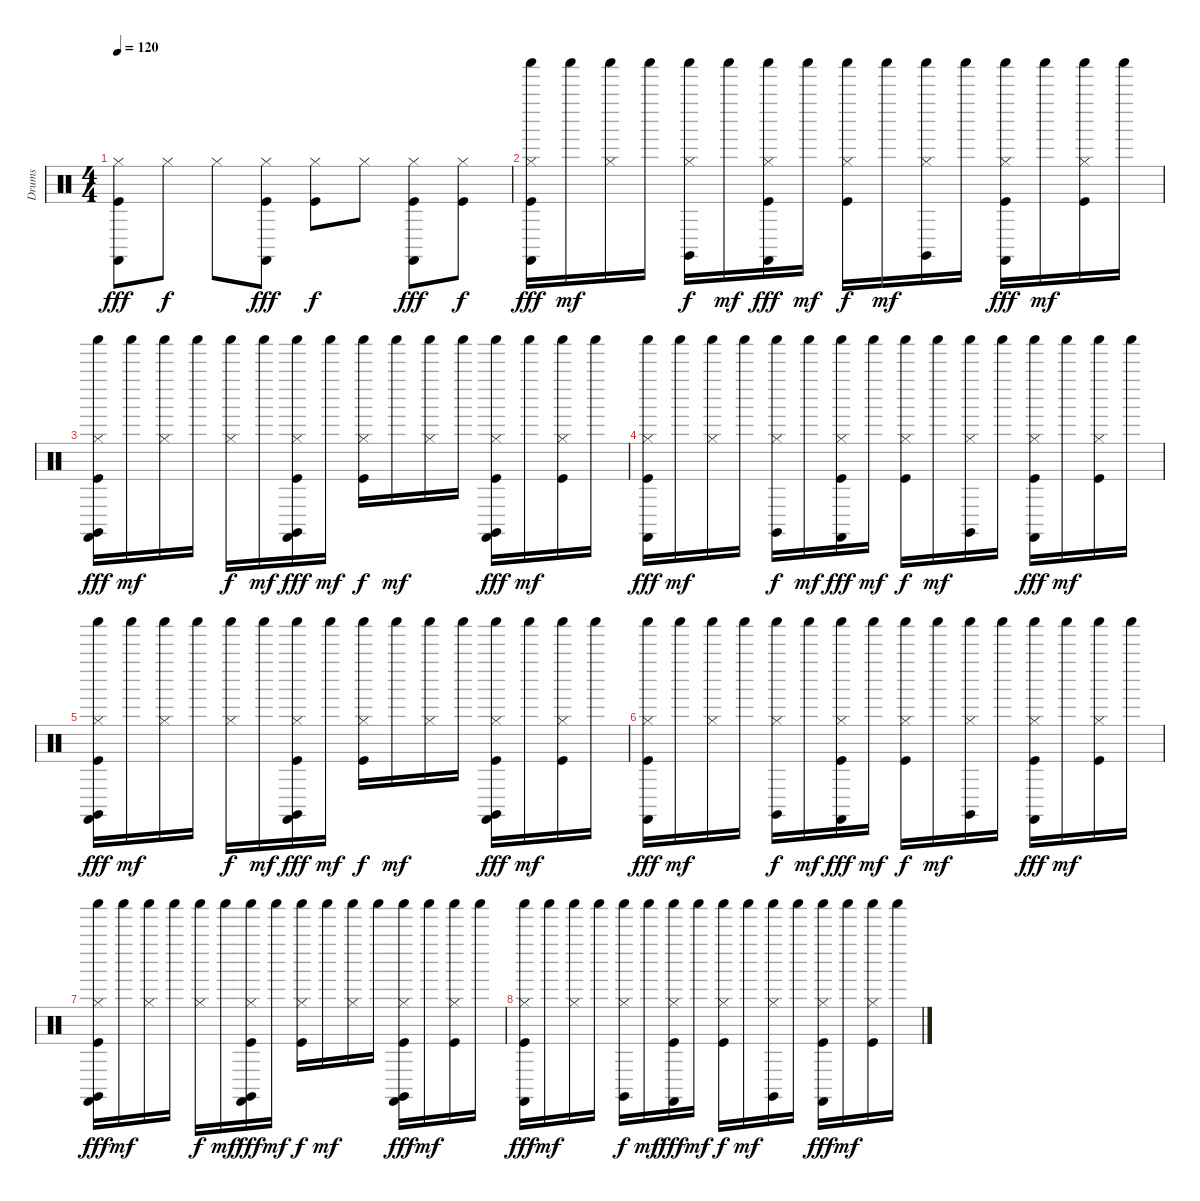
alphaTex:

\track ("Drums" "Drums") {instrument percussion}
\staff {score}
\articulation defaults
\ts (4 4)
\tempo 120
\clef neutral
\ks c
("Hi-Hat (closed)" "Castanets (hit)" "Kick (hit)").8{dy fff} "Hi-Hat (closed)".8{dy f} "Hi-Hat (closed)".8 ("Hi-Hat (closed)" "Castanets (hit)" "Kick (hit)").8{dy fff} ("Hi-Hat (closed)" "Kick (hit)").8{dy f} "Hi-Hat (closed)".8 ("Hi-Hat (closed)" "Castanets (hit)" "Kick (hit)").8{dy fff} ("Hi-Hat (closed)" "Kick (hit)").8{dy f} |
("Shaker (hit)" "Hi-Hat (closed)" "Castanets (hit)" "Kick (hit)").16{dy fff} "Shaker (hit)".16{dy mf} ("Shaker (hit)" "Hi-Hat (closed)").16 "Shaker (hit)".16 ("Shaker (hit)" "Hi-Hat (closed)" "Claves (hit)").16{dy f} "Shaker (hit)".16{dy mf} ("Shaker (hit)" "Hi-Hat (closed)" "Castanets (hit)" "Kick (hit)").16{dy fff} "Shaker (hit)".16{dy mf} ("Shaker (hit)" "Hi-Hat (closed)" "Kick (hit)").16{dy f} "Shaker (hit)".16{dy mf} ("Shaker (hit)" "Hi-Hat (closed)" "Claves (hit)").16 "Shaker (hit)".16 ("Shaker (hit)" "Hi-Hat (closed)" "Castanets (hit)" "Kick (hit)").16{dy fff} "Shaker (hit)".16{dy mf} ("Shaker (hit)" "Hi-Hat (closed)" "Kick (hit)").16 "Shaker (hit)".16 |
("Shaker (hit)" "Hi-Hat (closed)" "Castanets (hit)" "Claves (hit)" "Kick (hit)").16{dy fff} "Shaker (hit)".16{dy mf} ("Shaker (hit)" "Hi-Hat (closed)").16 "Shaker (hit)".16 ("Shaker (hit)" "Hi-Hat (closed)").16{dy f} "Shaker (hit)".16{dy mf} ("Shaker (hit)" "Hi-Hat (closed)" "Castanets (hit)" "Claves (hit)" "Kick (hit)").16{dy fff} "Shaker (hit)".16{dy mf} ("Shaker (hit)" "Hi-Hat (closed)" "Kick (hit)").16{dy f} "Shaker (hit)".16{dy mf} ("Shaker (hit)" "Hi-Hat (closed)").16 "Shaker (hit)".16 ("Shaker (hit)" "Hi-Hat (closed)" "Castanets (hit)" "Claves (hit)" "Kick (hit)").16{dy fff} "Shaker (hit)".16{dy mf} ("Shaker (hit)" "Hi-Hat (closed)" "Kick (hit)").16 "Shaker (hit)".16 |
("Shaker (hit)" "Hi-Hat (closed)" "Castanets (hit)" "Kick (hit)").16{dy fff} "Shaker (hit)".16{dy mf} ("Shaker (hit)" "Hi-Hat (closed)").16 "Shaker (hit)".16 ("Shaker (hit)" "Hi-Hat (closed)" "Claves (hit)").16{dy f} "Shaker (hit)".16{dy mf} ("Shaker (hit)" "Hi-Hat (closed)" "Castanets (hit)" "Kick (hit)").16{dy fff} "Shaker (hit)".16{dy mf} ("Shaker (hit)" "Hi-Hat (closed)" "Kick (hit)").16{dy f} "Shaker (hit)".16{dy mf} ("Shaker (hit)" "Hi-Hat (closed)" "Claves (hit)").16 "Shaker (hit)".16 ("Shaker (hit)" "Hi-Hat (closed)" "Castanets (hit)" "Kick (hit)").16{dy fff} "Shaker (hit)".16{dy mf} ("Shaker (hit)" "Hi-Hat (closed)" "Kick (hit)").16 "Shaker (hit)".16 |
("Shaker (hit)" "Hi-Hat (closed)" "Castanets (hit)" "Claves (hit)" "Kick (hit)").16{dy fff} "Shaker (hit)".16{dy mf} ("Shaker (hit)" "Hi-Hat (closed)").16 "Shaker (hit)".16 ("Shaker (hit)" "Hi-Hat (closed)").16{dy f} "Shaker (hit)".16{dy mf} ("Shaker (hit)" "Hi-Hat (closed)" "Castanets (hit)" "Claves (hit)" "Kick (hit)").16{dy fff} "Shaker (hit)".16{dy mf} ("Shaker (hit)" "Hi-Hat (closed)" "Kick (hit)").16{dy f} "Shaker (hit)".16{dy mf} ("Shaker (hit)" "Hi-Hat (closed)").16 "Shaker (hit)".16 ("Shaker (hit)" "Hi-Hat (closed)" "Castanets (hit)" "Claves (hit)" "Kick (hit)").16{dy fff} "Shaker (hit)".16{dy mf} ("Shaker (hit)" "Hi-Hat (closed)" "Kick (hit)").16 "Shaker (hit)".16 |
("Shaker (hit)" "Hi-Hat (closed)" "Castanets (hit)" "Kick (hit)").16{dy fff} "Shaker (hit)".16{dy mf} ("Shaker (hit)" "Hi-Hat (closed)").16 "Shaker (hit)".16 ("Shaker (hit)" "Hi-Hat (closed)" "Claves (hit)").16{dy f} "Shaker (hit)".16{dy mf} ("Shaker (hit)" "Hi-Hat (closed)" "Castanets (hit)" "Kick (hit)").16{dy fff} "Shaker (hit)".16{dy mf} ("Shaker (hit)" "Hi-Hat (closed)" "Kick (hit)").16{dy f} "Shaker (hit)".16{dy mf} ("Shaker (hit)" "Hi-Hat (closed)" "Claves (hit)").16 "Shaker (hit)".16 ("Shaker (hit)" "Hi-Hat (closed)" "Castanets (hit)" "Kick (hit)").16{dy fff} "Shaker (hit)".16{dy mf} ("Shaker (hit)" "Hi-Hat (closed)" "Kick (hit)").16 "Shaker (hit)".16 |
("Shaker (hit)" "Hi-Hat (closed)" "Castanets (hit)" "Claves (hit)" "Kick (hit)").16{dy fff} "Shaker (hit)".16{dy mf} ("Shaker (hit)" "Hi-Hat (closed)").16 "Shaker (hit)".16 ("Shaker (hit)" "Hi-Hat (closed)").16{dy f} "Shaker (hit)".16{dy mf} ("Shaker (hit)" "Hi-Hat (closed)" "Castanets (hit)" "Claves (hit)" "Kick (hit)").16{dy fff} "Shaker (hit)".16{dy mf} ("Shaker (hit)" "Hi-Hat (closed)" "Kick (hit)").16{dy f} "Shaker (hit)".16{dy mf} ("Shaker (hit)" "Hi-Hat (closed)").16 "Shaker (hit)".16 ("Shaker (hit)" "Hi-Hat (closed)" "Castanets (hit)" "Claves (hit)" "Kick (hit)").16{dy fff} "Shaker (hit)".16{dy mf} ("Shaker (hit)" "Hi-Hat (closed)" "Kick (hit)").16 "Shaker (hit)".16 |
("Shaker (hit)" "Hi-Hat (closed)" "Castanets (hit)" "Kick (hit)").16{dy fff} "Shaker (hit)".16{dy mf} ("Shaker (hit)" "Hi-Hat (closed)").16 "Shaker (hit)".16 ("Shaker (hit)" "Hi-Hat (closed)" "Claves (hit)").16{dy f} "Shaker (hit)".16{dy mf} ("Shaker (hit)" "Hi-Hat (closed)" "Castanets (hit)" "Kick (hit)").16{dy fff} "Shaker (hit)".16{dy mf} ("Shaker (hit)" "Hi-Hat (closed)" "Kick (hit)").16{dy f} "Shaker (hit)".16{dy mf} ("Shaker (hit)" "Hi-Hat (closed)" "Claves (hit)").16 "Shaker (hit)".16 ("Shaker (hit)" "Hi-Hat (closed)" "Castanets (hit)" "Kick (hit)").16{dy fff} "Shaker (hit)".16{dy mf} ("Shaker (hit)" "Hi-Hat (closed)" "Kick (hit)").16 "Shaker (hit)".16
